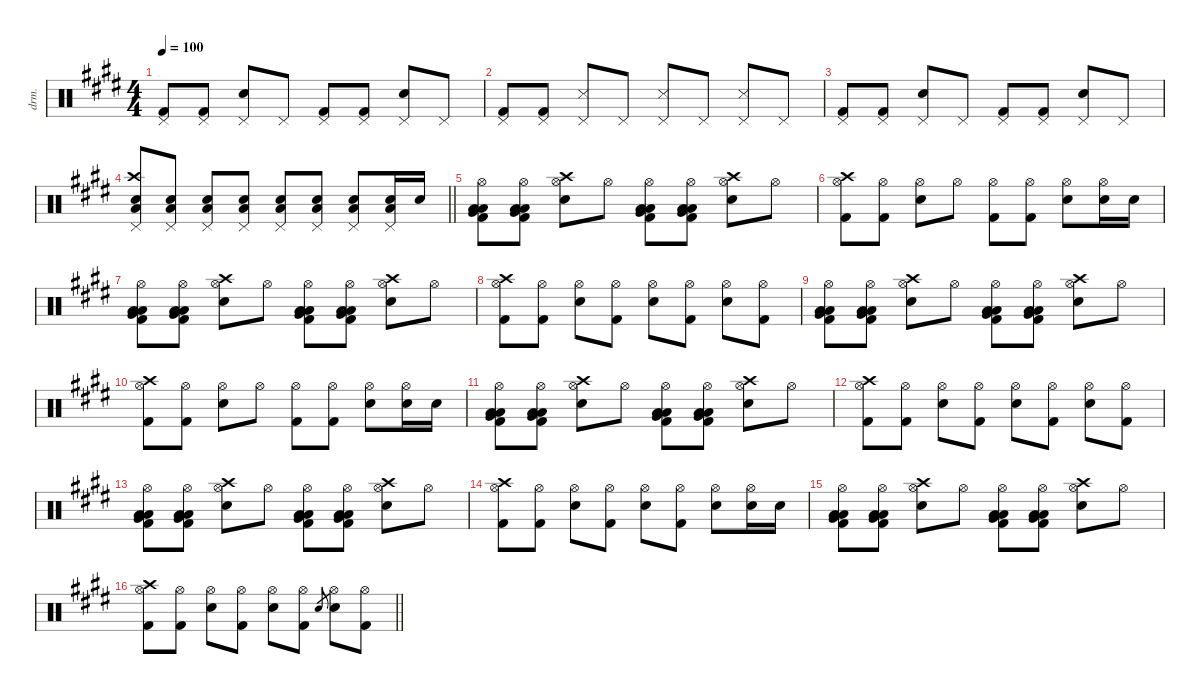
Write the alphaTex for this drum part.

\defaultSystemsLayout 4
\hideDynamics
\bracketExtendMode nobrackets
\otherSystemsTrackNameOrientation horizontal
\track ("Percussion" "drm.") {instrument percussion}
\staff {score}
\articulation defaults
\ts (4 4)
\tempo 100
\clef neutral
\ks c#minor
("Kick (hit) 2"{acc forcenatural} "Pedal Hi-Hat (hit)"{acc forcenatural}).8{dy f beam Up} ("Kick (hit) 2"{acc forcenatural} "Pedal Hi-Hat (hit)"{acc forcenatural}).8{beam Up} ("Snare (hit) 2"{acc forcenatural} "Pedal Hi-Hat (hit)"{acc forcenatural}).8{beam Up} "Pedal Hi-Hat (hit)"{acc forcenatural}.8{beam Up} ("Kick (hit) 2"{acc forcenatural} "Pedal Hi-Hat (hit)"{acc forcenatural}).8{beam Up} ("Kick (hit) 2"{acc forcenatural} "Pedal Hi-Hat (hit)"{acc forcenatural}).8{beam Up} ("Snare (hit) 2"{acc forcenatural} "Pedal Hi-Hat (hit)"{acc forcenatural}).8{beam Up} "Pedal Hi-Hat (hit)"{acc forcenatural}.8{beam Up} |
("Kick (hit) 2"{acc forcenatural} "Pedal Hi-Hat (hit)"{acc forcenatural}).8{beam Up} ("Kick (hit) 2"{acc forcenatural} "Pedal Hi-Hat (hit)"{acc forcenatural}).8{beam Up} ("Metronome (hit)"{acc forcenatural} "Pedal Hi-Hat (hit)"{acc forcenatural}).8{beam Up} "Pedal Hi-Hat (hit)"{acc forcenatural}.8{beam Up} ("Metronome (hit)"{acc forcenatural} "Pedal Hi-Hat (hit)"{acc forcenatural}).8{beam Up} "Pedal Hi-Hat (hit)"{acc forcenatural}.8{beam Up} ("Metronome (hit)"{acc forcenatural} "Pedal Hi-Hat (hit)"{acc forcenatural}).8{beam Up} "Pedal Hi-Hat (hit)"{acc forcenatural}.8{beam Up} |
("Kick (hit) 2"{acc forcenatural} "Pedal Hi-Hat (hit)"{acc forcenatural}).8{beam Up} ("Kick (hit) 2"{acc forcenatural} "Pedal Hi-Hat (hit)"{acc forcenatural}).8{beam Up} ("Snare (hit) 2"{acc forcenatural} "Pedal Hi-Hat (hit)"{acc forcenatural}).8{beam Up} "Pedal Hi-Hat (hit)"{acc forcenatural}.8{beam Up} ("Kick (hit) 2"{acc forcenatural} "Pedal Hi-Hat (hit)"{acc forcenatural}).8{beam Up} ("Kick (hit) 2"{acc forcenatural} "Pedal Hi-Hat (hit)"{acc forcenatural}).8{beam Up} ("Snare (hit) 2"{acc forcenatural} "Pedal Hi-Hat (hit)"{acc forcenatural}).8{beam Up} "Pedal Hi-Hat (hit)"{acc forcenatural}.8{beam Up} |
\barLineRight lightlight
("Snare (hit) 2"{acc forcenatural} "Low Tom (hit)"{acc forcenatural} "Crash high (hit)"{acc forcenatural} "Pedal Hi-Hat (hit)"{acc forcenatural}).8{dy mp beam Up} ("Snare (hit) 2"{acc forcenatural} "Low Tom (hit)"{acc forcenatural} "Pedal Hi-Hat (hit)"{acc forcenatural}).8{beam Up} ("Snare (hit) 2"{acc forcenatural} "Low Tom (hit)"{acc forcenatural} "Pedal Hi-Hat (hit)"{acc forcenatural}).8{dy mf beam Up} ("Snare (hit) 2"{acc forcenatural} "Low Tom (hit)"{acc forcenatural} "Pedal Hi-Hat (hit)"{acc forcenatural}).8{beam Up} ("Snare (hit) 2"{acc forcenatural} "Low Tom (hit)"{acc forcenatural} "Pedal Hi-Hat (hit)"{acc forcenatural}).8{dy f beam Up} ("Snare (hit) 2"{acc forcenatural} "Low Tom (hit)"{acc forcenatural} "Pedal Hi-Hat (hit)"{acc forcenatural}).8{beam Up} ("Snare (hit) 2"{acc forcenatural} "Low Tom (hit)"{acc forcenatural} "Pedal Hi-Hat (hit)"{acc forcenatural}).8{beam Up} ("Snare (hit) 2"{acc forcenatural} "Low Tom (hit)"{acc forcenatural} "Pedal Hi-Hat (hit)"{acc forcenatural}).16{beam Up} "Snare (hit) 2"{acc forcenatural}.16{beam Up} |
("Kick (hit) 2"{acc forcenatural} "Hi-Hat (open)"{acc forcenatural} "Low Tom (hit)"{acc forcenatural} "Very Low Tom (hit)"{acc forcenatural} "Low Floor Tom (hit)"{acc forcenatural}).8{beam Down} ("Kick (hit) 2"{acc forcenatural} "Hi-Hat (open)"{acc forcenatural} "Low Tom (hit)"{acc forcenatural} "Very Low Tom (hit)"{acc forcenatural} "Low Floor Tom (hit)"{acc forcenatural}).8{beam Down} ("Snare (hit) 2"{acc forcenatural} "Hi-Hat (open)"{acc forcenatural} "Crash high (hit)"{acc forcenatural}).8{beam Down} "Hi-Hat (open)"{acc forcenatural}.8{beam Down} ("Kick (hit) 2"{acc forcenatural} "Hi-Hat (open)"{acc forcenatural} "Low Tom (hit)"{acc forcenatural} "Very Low Tom (hit)"{acc forcenatural} "Low Floor Tom (hit)"{acc forcenatural}).8{beam Down} ("Kick (hit) 2"{acc forcenatural} "Hi-Hat (open)"{acc forcenatural} "Low Tom (hit)"{acc forcenatural} "Very Low Tom (hit)"{acc forcenatural} "Low Floor Tom (hit)"{acc forcenatural}).8{beam Down} ("Snare (hit) 2"{acc forcenatural} "Hi-Hat (open)"{acc forcenatural} "Crash high (hit)"{acc forcenatural}).8{beam Down} "Hi-Hat (open)"{acc forcenatural}.8{beam Down} |
("Kick (hit) 2"{acc forcenatural} "Hi-Hat (open)"{acc forcenatural} "Crash high (hit)"{acc forcenatural}).8{beam Down} ("Kick (hit) 2"{acc forcenatural} "Hi-Hat (open)"{acc forcenatural}).8{beam Down} ("Snare (hit) 2"{acc forcenatural} "Hi-Hat (open)"{acc forcenatural}).8{beam Down} "Hi-Hat (open)"{acc forcenatural}.8{beam Down} ("Kick (hit) 2"{acc forcenatural} "Hi-Hat (open)"{acc forcenatural}).8{beam Down} ("Kick (hit) 2"{acc forcenatural} "Hi-Hat (open)"{acc forcenatural}).8{beam Down} ("Snare (hit) 2"{acc forcenatural} "Hi-Hat (open)"{acc forcenatural}).8{beam Down} ("Snare (hit) 2"{acc forcenatural} "Hi-Hat (open)"{acc forcenatural}).16{beam Down} "Snare (hit) 2"{acc forcenatural}.16{beam Down} |
("Kick (hit) 2"{acc forcenatural} "Hi-Hat (open)"{acc forcenatural} "Low Tom (hit)"{acc forcenatural} "Very Low Tom (hit)"{acc forcenatural} "Low Floor Tom (hit)"{acc forcenatural}).8{beam Down} ("Kick (hit) 2"{acc forcenatural} "Hi-Hat (open)"{acc forcenatural} "Low Tom (hit)"{acc forcenatural} "Very Low Tom (hit)"{acc forcenatural} "Low Floor Tom (hit)"{acc forcenatural}).8{beam Down} ("Snare (hit) 2"{acc forcenatural} "Hi-Hat (open)"{acc forcenatural} "Crash high (hit)"{acc forcenatural}).8{beam Down} "Hi-Hat (open)"{acc forcenatural}.8{beam Down} ("Kick (hit) 2"{acc forcenatural} "Hi-Hat (open)"{acc forcenatural} "Low Tom (hit)"{acc forcenatural} "Very Low Tom (hit)"{acc forcenatural} "Low Floor Tom (hit)"{acc forcenatural}).8{beam Down} ("Kick (hit) 2"{acc forcenatural} "Hi-Hat (open)"{acc forcenatural} "Low Tom (hit)"{acc forcenatural} "Very Low Tom (hit)"{acc forcenatural} "Low Floor Tom (hit)"{acc forcenatural}).8{beam Down} ("Snare (hit) 2"{acc forcenatural} "Hi-Hat (open)"{acc forcenatural} "Crash high (hit)"{acc forcenatural}).8{beam Down} "Hi-Hat (open)"{acc forcenatural}.8{beam Down} |
("Kick (hit) 2"{acc forcenatural} "Hi-Hat (open)"{acc forcenatural} "Crash high (hit)"{acc forcenatural}).8{beam Down} ("Kick (hit) 2"{acc forcenatural} "Hi-Hat (open)"{acc forcenatural}).8{beam Down} ("Snare (hit) 2"{acc forcenatural} "Hi-Hat (open)"{acc forcenatural}).8{beam Down} ("Kick (hit) 2"{acc forcenatural} "Hi-Hat (open)"{acc forcenatural}).8{beam Down} ("Snare (hit) 2"{acc forcenatural} "Hi-Hat (open)"{acc forcenatural}).8{beam Down} ("Kick (hit) 2"{acc forcenatural} "Hi-Hat (open)"{acc forcenatural}).8{beam Down} ("Snare (hit) 2"{acc forcenatural} "Hi-Hat (open)"{acc forcenatural}).8{beam Down} ("Kick (hit) 2"{acc forcenatural} "Hi-Hat (open)"{acc forcenatural}).8{beam Down} |
("Kick (hit) 2"{acc forcenatural} "Hi-Hat (open)"{acc forcenatural} "Low Tom (hit)"{acc forcenatural} "Very Low Tom (hit)"{acc forcenatural} "Low Floor Tom (hit)"{acc forcenatural}).8{beam Down} ("Kick (hit) 2"{acc forcenatural} "Hi-Hat (open)"{acc forcenatural} "Low Tom (hit)"{acc forcenatural} "Very Low Tom (hit)"{acc forcenatural} "Low Floor Tom (hit)"{acc forcenatural}).8{beam Down} ("Snare (hit) 2"{acc forcenatural} "Hi-Hat (open)"{acc forcenatural} "Crash high (hit)"{acc forcenatural}).8{beam Down} "Hi-Hat (open)"{acc forcenatural}.8{beam Down} ("Kick (hit) 2"{acc forcenatural} "Hi-Hat (open)"{acc forcenatural} "Low Tom (hit)"{acc forcenatural} "Very Low Tom (hit)"{acc forcenatural} "Low Floor Tom (hit)"{acc forcenatural}).8{beam Down} ("Kick (hit) 2"{acc forcenatural} "Hi-Hat (open)"{acc forcenatural} "Low Tom (hit)"{acc forcenatural} "Very Low Tom (hit)"{acc forcenatural} "Low Floor Tom (hit)"{acc forcenatural}).8{beam Down} ("Snare (hit) 2"{acc forcenatural} "Hi-Hat (open)"{acc forcenatural} "Crash high (hit)"{acc forcenatural}).8{beam Down} "Hi-Hat (open)"{acc forcenatural}.8{beam Down} |
("Kick (hit) 2"{acc forcenatural} "Hi-Hat (open)"{acc forcenatural} "Crash high (hit)"{acc forcenatural}).8{beam Down} ("Kick (hit) 2"{acc forcenatural} "Hi-Hat (open)"{acc forcenatural}).8{beam Down} ("Snare (hit) 2"{acc forcenatural} "Hi-Hat (open)"{acc forcenatural}).8{beam Down} "Hi-Hat (open)"{acc forcenatural}.8{beam Down} ("Kick (hit) 2"{acc forcenatural} "Hi-Hat (open)"{acc forcenatural}).8{beam Down} ("Kick (hit) 2"{acc forcenatural} "Hi-Hat (open)"{acc forcenatural}).8{beam Down} ("Snare (hit) 2"{acc forcenatural} "Hi-Hat (open)"{acc forcenatural}).8{beam Down} ("Snare (hit) 2"{acc forcenatural} "Hi-Hat (open)"{acc forcenatural}).16{beam Down} "Snare (hit) 2"{acc forcenatural}.16{beam Down} |
("Kick (hit) 2"{acc forcenatural} "Hi-Hat (open)"{acc forcenatural} "Low Tom (hit)"{acc forcenatural} "Very Low Tom (hit)"{acc forcenatural} "Low Floor Tom (hit)"{acc forcenatural}).8{beam Down} ("Kick (hit) 2"{acc forcenatural} "Hi-Hat (open)"{acc forcenatural} "Low Tom (hit)"{acc forcenatural} "Very Low Tom (hit)"{acc forcenatural} "Low Floor Tom (hit)"{acc forcenatural}).8{beam Down} ("Snare (hit) 2"{acc forcenatural} "Hi-Hat (open)"{acc forcenatural} "Crash high (hit)"{acc forcenatural}).8{beam Down} "Hi-Hat (open)"{acc forcenatural}.8{beam Down} ("Kick (hit) 2"{acc forcenatural} "Hi-Hat (open)"{acc forcenatural} "Low Tom (hit)"{acc forcenatural} "Very Low Tom (hit)"{acc forcenatural} "Low Floor Tom (hit)"{acc forcenatural}).8{beam Down} ("Kick (hit) 2"{acc forcenatural} "Hi-Hat (open)"{acc forcenatural} "Low Tom (hit)"{acc forcenatural} "Very Low Tom (hit)"{acc forcenatural} "Low Floor Tom (hit)"{acc forcenatural}).8{beam Down} ("Snare (hit) 2"{acc forcenatural} "Hi-Hat (open)"{acc forcenatural} "Crash high (hit)"{acc forcenatural}).8{beam Down} "Hi-Hat (open)"{acc forcenatural}.8{beam Down} |
("Kick (hit) 2"{acc forcenatural} "Hi-Hat (open)"{acc forcenatural} "Crash high (hit)"{acc forcenatural}).8{beam Down} ("Kick (hit) 2"{acc forcenatural} "Hi-Hat (open)"{acc forcenatural}).8{beam Down} ("Snare (hit) 2"{acc forcenatural} "Hi-Hat (open)"{acc forcenatural}).8{beam Down} ("Kick (hit) 2"{acc forcenatural} "Hi-Hat (open)"{acc forcenatural}).8{beam Down} ("Snare (hit) 2"{acc forcenatural} "Hi-Hat (open)"{acc forcenatural}).8{beam Down} ("Kick (hit) 2"{acc forcenatural} "Hi-Hat (open)"{acc forcenatural}).8{beam Down} ("Snare (hit) 2"{acc forcenatural} "Hi-Hat (open)"{acc forcenatural}).8{beam Down} ("Kick (hit) 2"{acc forcenatural} "Hi-Hat (open)"{acc forcenatural}).8{beam Down} |
("Kick (hit) 2"{acc forcenatural} "Hi-Hat (open)"{acc forcenatural} "Low Tom (hit)"{acc forcenatural} "Very Low Tom (hit)"{acc forcenatural} "Low Floor Tom (hit)"{acc forcenatural}).8{beam Down} ("Kick (hit) 2"{acc forcenatural} "Hi-Hat (open)"{acc forcenatural} "Low Tom (hit)"{acc forcenatural} "Very Low Tom (hit)"{acc forcenatural} "Low Floor Tom (hit)"{acc forcenatural}).8{beam Down} ("Snare (hit) 2"{acc forcenatural} "Hi-Hat (open)"{acc forcenatural} "Crash high (hit)"{acc forcenatural}).8{beam Down} "Hi-Hat (open)"{acc forcenatural}.8{beam Down} ("Kick (hit) 2"{acc forcenatural} "Hi-Hat (open)"{acc forcenatural} "Low Tom (hit)"{acc forcenatural} "Very Low Tom (hit)"{acc forcenatural} "Low Floor Tom (hit)"{acc forcenatural}).8{beam Down} ("Kick (hit) 2"{acc forcenatural} "Hi-Hat (open)"{acc forcenatural} "Low Tom (hit)"{acc forcenatural} "Very Low Tom (hit)"{acc forcenatural} "Low Floor Tom (hit)"{acc forcenatural}).8{beam Down} ("Snare (hit) 2"{acc forcenatural} "Hi-Hat (open)"{acc forcenatural} "Crash high (hit)"{acc forcenatural}).8{beam Down} "Hi-Hat (open)"{acc forcenatural}.8{beam Down} |
("Kick (hit) 2"{acc forcenatural} "Hi-Hat (open)"{acc forcenatural} "Crash high (hit)"{acc forcenatural}).8{beam Down} ("Kick (hit) 2"{acc forcenatural} "Hi-Hat (open)"{acc forcenatural}).8{beam Down} ("Snare (hit) 2"{acc forcenatural} "Hi-Hat (open)"{acc forcenatural}).8{beam Down} ("Kick (hit) 2"{acc forcenatural} "Hi-Hat (open)"{acc forcenatural}).8{beam Down} ("Snare (hit) 2"{acc forcenatural} "Hi-Hat (open)"{acc forcenatural}).8{beam Down} ("Kick (hit) 2"{acc forcenatural} "Hi-Hat (open)"{acc forcenatural}).8{beam Down} ("Snare (hit) 2"{acc forcenatural} "Hi-Hat (open)"{acc forcenatural}).8{beam Down} ("Snare (hit) 2"{acc forcenatural} "Hi-Hat (open)"{acc forcenatural}).16{beam Down} "Snare (hit) 2"{acc forcenatural}.16{beam Down} |
("Kick (hit) 2"{acc forcenatural} "Hi-Hat (open)"{acc forcenatural} "Low Tom (hit)"{acc forcenatural} "Very Low Tom (hit)"{acc forcenatural} "Low Floor Tom (hit)"{acc forcenatural}).8{beam Down} ("Kick (hit) 2"{acc forcenatural} "Hi-Hat (open)"{acc forcenatural} "Low Tom (hit)"{acc forcenatural} "Very Low Tom (hit)"{acc forcenatural} "Low Floor Tom (hit)"{acc forcenatural}).8{beam Down} ("Snare (hit) 2"{acc forcenatural} "Hi-Hat (open)"{acc forcenatural} "Crash high (hit)"{acc forcenatural}).8{beam Down} "Hi-Hat (open)"{acc forcenatural}.8{beam Down} ("Kick (hit) 2"{acc forcenatural} "Hi-Hat (open)"{acc forcenatural} "Low Tom (hit)"{acc forcenatural} "Very Low Tom (hit)"{acc forcenatural} "Low Floor Tom (hit)"{acc forcenatural}).8{beam Down} ("Kick (hit) 2"{acc forcenatural} "Hi-Hat (open)"{acc forcenatural} "Low Tom (hit)"{acc forcenatural} "Very Low Tom (hit)"{acc forcenatural} "Low Floor Tom (hit)"{acc forcenatural}).8{beam Down} ("Snare (hit) 2"{acc forcenatural} "Hi-Hat (open)"{acc forcenatural} "Crash high (hit)"{acc forcenatural}).8{beam Down} "Hi-Hat (open)"{acc forcenatural}.8{beam Down} |
\barLineRight lightlight
("Kick (hit) 2"{acc forcenatural} "Hi-Hat (open)"{acc forcenatural} "Crash high (hit)"{acc forcenatural}).8{beam Down} ("Kick (hit) 2"{acc forcenatural} "Hi-Hat (open)"{acc forcenatural}).8{beam Down} ("Snare (hit) 2"{acc forcenatural} "Hi-Hat (open)"{acc forcenatural}).8{beam Down} ("Kick (hit) 2"{acc forcenatural} "Hi-Hat (open)"{acc forcenatural}).8{beam Down} ("Snare (hit) 2"{acc forcenatural} "Hi-Hat (open)"{acc forcenatural}).8{beam Down} ("Kick (hit) 2"{acc forcenatural} "Hi-Hat (open)"{acc forcenatural}).8{beam Down} "Snare (hit) 2"{acc forcenatural}.8{gr dy mf beam Up} ("Snare (hit) 2"{acc forcenatural} "Hi-Hat (open)"{acc forcenatural}).8{dy f beam Down} ("Kick (hit) 2"{acc forcenatural} "Hi-Hat (open)"{acc forcenatural}).8{beam Down}
